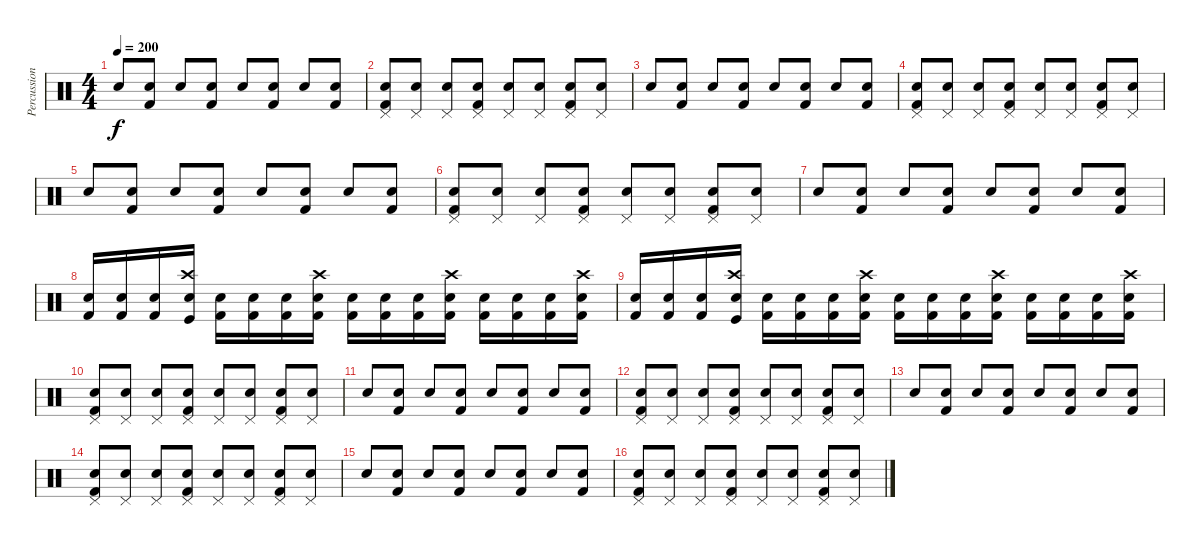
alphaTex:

\track ("Percussion" "Percussion") {instrument percussion}
\staff {score}
\articulation defaults
\ts (4 4)
\tempo 200
\clef neutral
\ks c "Electric Snare (hit)".8{dy f}
("Kick (hit) 2" "Snare (hit) 2").8 "Electric Snare (hit)".8 ("Kick (hit) 2" "Snare (hit) 2").8 "Electric Snare (hit)".8 ("Snare (hit) 2" "Kick (hit) 2").8 "Electric Snare (hit)".8 ("Snare (hit) 2" "Kick (hit) 2").8 |
("Pedal Hi-Hat (hit)" "Kick (hit) 2" "Snare (hit) 2").8 ("Pedal Hi-Hat (hit)" "Electric Snare (hit)").8 ("Pedal Hi-Hat (hit)" "Electric Snare (hit)").8 ("Pedal Hi-Hat (hit)" "Snare (hit) 2" "Kick (hit) 2").8 ("Pedal Hi-Hat (hit)" "Electric Snare (hit)").8 ("Pedal Hi-Hat (hit)" "Electric Snare (hit)").8 ("Pedal Hi-Hat (hit)" "Kick (hit) 2" "Snare (hit) 2").8 ("Pedal Hi-Hat (hit)" "Electric Snare (hit)").8 |
"Electric Snare (hit)".8 ("Kick (hit) 2" "Snare (hit) 2").8 "Electric Snare (hit)".8 ("Kick (hit) 2" "Snare (hit) 2").8 "Electric Snare (hit)".8 ("Snare (hit) 2" "Kick (hit) 2").8 "Electric Snare (hit)".8 ("Snare (hit) 2" "Kick (hit) 2").8 |
("Pedal Hi-Hat (hit)" "Kick (hit) 2" "Snare (hit) 2").8 ("Pedal Hi-Hat (hit)" "Electric Snare (hit)").8 ("Pedal Hi-Hat (hit)" "Electric Snare (hit)").8 ("Pedal Hi-Hat (hit)" "Snare (hit) 2" "Kick (hit) 2").8 ("Pedal Hi-Hat (hit)" "Electric Snare (hit)").8 ("Pedal Hi-Hat (hit)" "Electric Snare (hit)").8 ("Pedal Hi-Hat (hit)" "Kick (hit) 2" "Snare (hit) 2").8 ("Pedal Hi-Hat (hit)" "Electric Snare (hit)").8 |
"Electric Snare (hit)".8 ("Kick (hit) 2" "Snare (hit) 2").8 "Electric Snare (hit)".8 ("Kick (hit) 2" "Snare (hit) 2").8 "Electric Snare (hit)".8 ("Snare (hit) 2" "Kick (hit) 2").8 "Electric Snare (hit)".8 ("Snare (hit) 2" "Kick (hit) 2").8 |
("Pedal Hi-Hat (hit)" "Kick (hit) 2" "Snare (hit) 2").8 ("Pedal Hi-Hat (hit)" "Electric Snare (hit)").8 ("Pedal Hi-Hat (hit)" "Electric Snare (hit)").8 ("Pedal Hi-Hat (hit)" "Snare (hit) 2" "Kick (hit) 2").8 ("Pedal Hi-Hat (hit)" "Electric Snare (hit)").8 ("Pedal Hi-Hat (hit)" "Electric Snare (hit)").8 ("Pedal Hi-Hat (hit)" "Kick (hit) 2" "Snare (hit) 2").8 ("Pedal Hi-Hat (hit)" "Electric Snare (hit)").8 |
"Electric Snare (hit)".8 ("Kick (hit) 2" "Snare (hit) 2").8 "Electric Snare (hit)".8 ("Kick (hit) 2" "Snare (hit) 2").8 "Electric Snare (hit)".8 ("Snare (hit) 2" "Kick (hit) 2").8 "Electric Snare (hit)".8 ("Snare (hit) 2" "Kick (hit) 2").8 |
("Kick (hit) 2" "Snare (hit) 2").16 ("Snare (hit) 2" "Kick (hit) 2").16 ("Kick (hit) 2" "Snare (hit) 2").16 ("Crash high (hit)" "Kick (hit)" "Snare (hit) 2").16 ("Snare (hit) 2" "Kick (hit) 2").16 ("Kick (hit) 2" "Snare (hit) 2").16 ("Kick (hit) 2" "Snare (hit) 2").16 ("Kick (hit) 2" "Snare (hit) 2" "Crash high (hit)").16 ("Kick (hit) 2" "Snare (hit) 2").16 ("Snare (hit) 2" "Kick (hit) 2").16 ("Kick (hit) 2" "Snare (hit) 2").16 ("Kick (hit) 2" "Snare (hit) 2" "Crash high (hit)").16 ("Kick (hit) 2" "Snare (hit) 2").16 ("Snare (hit) 2" "Kick (hit) 2").16 ("Kick (hit) 2" "Snare (hit) 2").16 ("Kick (hit) 2" "Crash high (hit)" "Snare (hit) 2").16 |
("Kick (hit) 2" "Snare (hit) 2").16 ("Snare (hit) 2" "Kick (hit) 2").16 ("Kick (hit) 2" "Snare (hit) 2").16 ("Crash high (hit)" "Kick (hit)" "Snare (hit) 2").16 ("Snare (hit) 2" "Kick (hit) 2").16 ("Kick (hit) 2" "Snare (hit) 2").16 ("Kick (hit) 2" "Snare (hit) 2").16 ("Kick (hit) 2" "Snare (hit) 2" "Crash high (hit)").16 ("Kick (hit) 2" "Snare (hit) 2").16 ("Snare (hit) 2" "Kick (hit) 2").16 ("Kick (hit) 2" "Snare (hit) 2").16 ("Kick (hit) 2" "Snare (hit) 2" "Crash high (hit)").16 ("Kick (hit) 2" "Snare (hit) 2").16 ("Snare (hit) 2" "Kick (hit) 2").16 ("Kick (hit) 2" "Snare (hit) 2").16 ("Kick (hit) 2" "Crash high (hit)" "Snare (hit) 2").16 |
("Pedal Hi-Hat (hit)" "Kick (hit) 2" "Snare (hit) 2").8 ("Pedal Hi-Hat (hit)" "Electric Snare (hit)").8 ("Pedal Hi-Hat (hit)" "Electric Snare (hit)").8 ("Pedal Hi-Hat (hit)" "Snare (hit) 2" "Kick (hit) 2").8 ("Pedal Hi-Hat (hit)" "Electric Snare (hit)").8 ("Pedal Hi-Hat (hit)" "Electric Snare (hit)").8 ("Pedal Hi-Hat (hit)" "Kick (hit) 2" "Snare (hit) 2").8 ("Pedal Hi-Hat (hit)" "Electric Snare (hit)").8 |
"Electric Snare (hit)".8 ("Kick (hit) 2" "Snare (hit) 2").8 "Electric Snare (hit)".8 ("Kick (hit) 2" "Snare (hit) 2").8 "Electric Snare (hit)".8 ("Snare (hit) 2" "Kick (hit) 2").8 "Electric Snare (hit)".8 ("Snare (hit) 2" "Kick (hit) 2").8 |
("Pedal Hi-Hat (hit)" "Kick (hit) 2" "Snare (hit) 2").8 ("Pedal Hi-Hat (hit)" "Electric Snare (hit)").8 ("Pedal Hi-Hat (hit)" "Electric Snare (hit)").8 ("Pedal Hi-Hat (hit)" "Snare (hit) 2" "Kick (hit) 2").8 ("Pedal Hi-Hat (hit)" "Electric Snare (hit)").8 ("Pedal Hi-Hat (hit)" "Electric Snare (hit)").8 ("Pedal Hi-Hat (hit)" "Kick (hit) 2" "Snare (hit) 2").8 ("Pedal Hi-Hat (hit)" "Electric Snare (hit)").8 |
"Electric Snare (hit)".8 ("Kick (hit) 2" "Snare (hit) 2").8 "Electric Snare (hit)".8 ("Kick (hit) 2" "Snare (hit) 2").8 "Electric Snare (hit)".8 ("Snare (hit) 2" "Kick (hit) 2").8 "Electric Snare (hit)".8 ("Snare (hit) 2" "Kick (hit) 2").8 |
("Pedal Hi-Hat (hit)" "Kick (hit) 2" "Snare (hit) 2").8 ("Pedal Hi-Hat (hit)" "Electric Snare (hit)").8 ("Pedal Hi-Hat (hit)" "Electric Snare (hit)").8 ("Pedal Hi-Hat (hit)" "Snare (hit) 2" "Kick (hit) 2").8 ("Pedal Hi-Hat (hit)" "Electric Snare (hit)").8 ("Pedal Hi-Hat (hit)" "Electric Snare (hit)").8 ("Pedal Hi-Hat (hit)" "Kick (hit) 2" "Snare (hit) 2").8 ("Pedal Hi-Hat (hit)" "Electric Snare (hit)").8 |
"Electric Snare (hit)".8 ("Kick (hit) 2" "Snare (hit) 2").8 "Electric Snare (hit)".8 ("Kick (hit) 2" "Snare (hit) 2").8 "Electric Snare (hit)".8 ("Snare (hit) 2" "Kick (hit) 2").8 "Electric Snare (hit)".8 ("Snare (hit) 2" "Kick (hit) 2").8 |
("Pedal Hi-Hat (hit)" "Kick (hit) 2" "Snare (hit) 2").8 ("Pedal Hi-Hat (hit)" "Electric Snare (hit)").8 ("Pedal Hi-Hat (hit)" "Electric Snare (hit)").8 ("Pedal Hi-Hat (hit)" "Snare (hit) 2" "Kick (hit) 2").8 ("Pedal Hi-Hat (hit)" "Electric Snare (hit)").8 ("Pedal Hi-Hat (hit)" "Electric Snare (hit)").8 ("Pedal Hi-Hat (hit)" "Kick (hit) 2" "Snare (hit) 2").8 ("Pedal Hi-Hat (hit)" "Electric Snare (hit)").8
